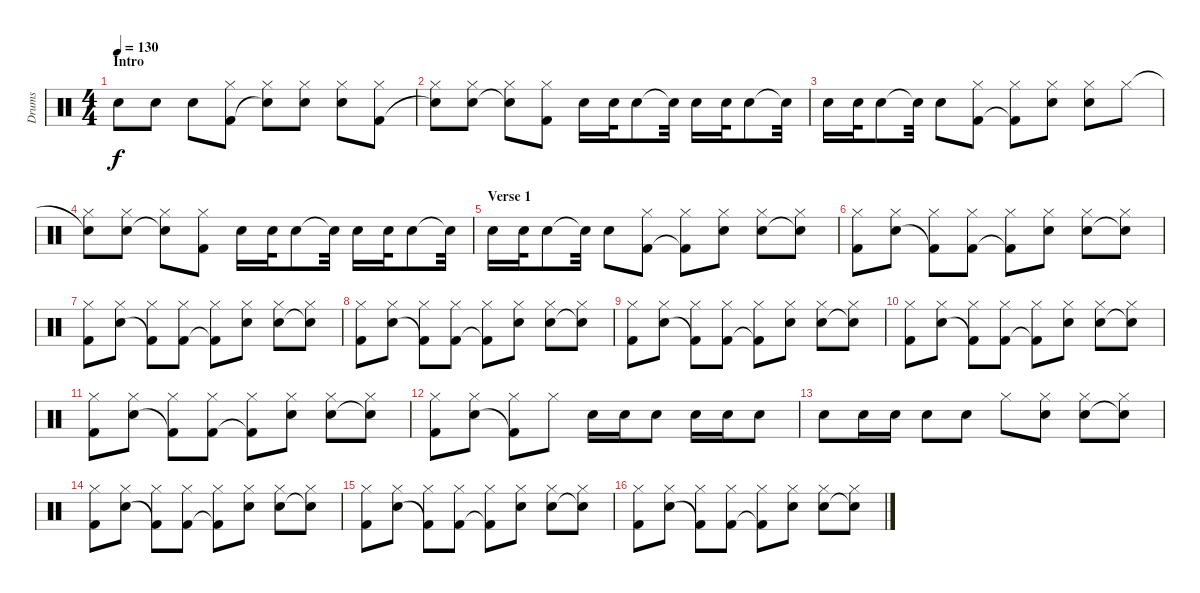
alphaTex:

\track ("Drums" "Drums") {instrument percussion}
\staff {score}
\articulation defaults
\ts (4 4)
\section ("" "Intro")
\tempo 130
\clef neutral
\ks c "Snare (hit) 2".8{dy f} "Snare (hit) 2".8 "Snare (hit) 2".8
("Kick (hit) 2" "Hi-Hat (closed)").8 ("Snare (hit)"{t} "Hi-Hat (closed)").8 ("Snare (hit) 2" "Hi-Hat (closed)").8 ("Snare (hit) 2" "Hi-Hat (closed)").8 ("Kick (hit) 2" "Hi-Hat (closed)").8 |
("Snare (hit)"{t} "Hi-Hat (closed)").8 ("Snare (hit) 2" "Hi-Hat (closed)").8 ("Snare (hit)"{t} "Hi-Hat (closed)").8 ("Kick (hit) 2" "Hi-Hat (closed)").8 "Snare (hit) 2".16 "Snare (hit) 2".32 "Snare (hit) 2".8 "Snare (hit)"{t}.32 "Snare (hit) 2".16 "Snare (hit) 2".32 "Snare (hit) 2".8 "Snare (hit)"{t}.32 |
"Snare (hit) 2".16 "Snare (hit) 2".32 "Snare (hit) 2".8 "Snare (hit)"{t}.32 "Snare (hit) 2".8 ("Kick (hit) 2" "Hi-Hat (closed)").8 ("Kick (hit) 2"{t} "Hi-Hat (closed)").8 ("Snare (hit) 2" "Hi-Hat (closed)").8 ("Snare (hit) 2" "Hi-Hat (closed)").8 "Hi-Hat (closed)".8 |
("Snare (hit)"{t} "Hi-Hat (closed)").8 ("Snare (hit) 2" "Hi-Hat (closed)").8 ("Snare (hit)"{t} "Hi-Hat (closed)").8 ("Kick (hit) 2" "Hi-Hat (closed)").8 "Snare (hit) 2".16 "Snare (hit) 2".32 "Snare (hit) 2".8 "Snare (hit)"{t}.32 "Snare (hit) 2".16 "Snare (hit) 2".32 "Snare (hit) 2".8 "Snare (hit)"{t}.32 |
\section ("" "Verse 1")
"Snare (hit) 2".16 "Snare (hit) 2".32 "Snare (hit) 2".8 "Snare (hit)"{t}.32 "Snare (hit) 2".8 ("Kick (hit) 2" "Hi-Hat (closed)").8 ("Kick (hit) 2"{t} "Hi-Hat (closed)").8 ("Snare (hit) 2" "Hi-Hat (closed)").8 ("Snare (hit) 2" "Hi-Hat (closed)").8 ("Snare (hit)"{t} "Hi-Hat (closed)").8 |
("Kick (hit) 2" "Hi-Hat (closed)").8 ("Snare (hit) 2" "Hi-Hat (closed)").8 ("Kick (hit) 2"{t} "Hi-Hat (closed)").8 ("Kick (hit) 2" "Hi-Hat (closed)").8 ("Kick (hit) 2"{t} "Hi-Hat (closed)").8 ("Snare (hit) 2" "Hi-Hat (closed)").8 ("Snare (hit) 2" "Hi-Hat (closed)").8 ("Snare (hit) 2"{t} "Hi-Hat (closed)").8 |
("Kick (hit) 2" "Hi-Hat (closed)").8 ("Snare (hit) 2" "Hi-Hat (closed)").8 ("Kick (hit) 2"{t} "Hi-Hat (closed)").8 ("Kick (hit) 2" "Hi-Hat (closed)").8 ("Kick (hit) 2"{t} "Hi-Hat (closed)").8 ("Snare (hit) 2" "Hi-Hat (closed)").8 ("Snare (hit) 2" "Hi-Hat (closed)").8 ("Snare (hit) 2"{t} "Hi-Hat (closed)").8 |
("Kick (hit) 2" "Hi-Hat (closed)").8 ("Snare (hit) 2" "Hi-Hat (closed)").8 ("Kick (hit) 2"{t} "Hi-Hat (closed)").8 ("Kick (hit) 2" "Hi-Hat (closed)").8 ("Kick (hit) 2"{t} "Hi-Hat (closed)").8 ("Snare (hit) 2" "Hi-Hat (closed)").8 ("Snare (hit) 2" "Hi-Hat (closed)").8 ("Snare (hit) 2"{t} "Hi-Hat (closed)").8 |
("Kick (hit) 2" "Hi-Hat (closed)").8 ("Snare (hit) 2" "Hi-Hat (closed)").8 ("Kick (hit) 2"{t} "Hi-Hat (closed)").8 ("Kick (hit) 2" "Hi-Hat (closed)").8 ("Kick (hit) 2"{t} "Hi-Hat (closed)").8 ("Snare (hit) 2" "Hi-Hat (closed)").8 ("Snare (hit) 2" "Hi-Hat (closed)").8 ("Snare (hit) 2"{t} "Hi-Hat (closed)").8 |
("Kick (hit) 2" "Hi-Hat (closed)").8 ("Snare (hit) 2" "Hi-Hat (closed)").8 ("Kick (hit) 2"{t} "Hi-Hat (closed)").8 ("Kick (hit) 2" "Hi-Hat (closed)").8 ("Kick (hit) 2"{t} "Hi-Hat (closed)").8 ("Snare (hit) 2" "Hi-Hat (closed)").8 ("Snare (hit) 2" "Hi-Hat (closed)").8 ("Snare (hit) 2"{t} "Hi-Hat (closed)").8 |
("Kick (hit) 2" "Hi-Hat (closed)").8 ("Snare (hit) 2" "Hi-Hat (closed)").8 ("Kick (hit) 2"{t} "Hi-Hat (closed)").8 ("Kick (hit) 2" "Hi-Hat (closed)").8 ("Kick (hit) 2"{t} "Hi-Hat (closed)").8 ("Snare (hit) 2" "Hi-Hat (closed)").8 ("Snare (hit) 2" "Hi-Hat (closed)").8 ("Snare (hit) 2"{t} "Hi-Hat (closed)").8 |
("Kick (hit) 2" "Hi-Hat (closed)").8 ("Snare (hit) 2" "Hi-Hat (closed)").8 ("Kick (hit) 2"{t} "Hi-Hat (closed)").8 "Hi-Hat (closed)".8 "Snare (hit) 2".16 "Snare (hit) 2".16 "Snare (hit) 2".8 "Snare (hit) 2".16 "Snare (hit) 2".16 "Snare (hit) 2".8 |
"Snare (hit) 2".8 "Snare (hit) 2".16 "Snare (hit) 2".16 "Snare (hit) 2".8 "Snare (hit) 2".8 "Hi-Hat (closed)".8 ("Snare (hit) 2" "Hi-Hat (closed)").8 ("Snare (hit) 2" "Hi-Hat (closed)").8 ("Snare (hit) 2"{t} "Hi-Hat (closed)").8 |
("Kick (hit) 2" "Hi-Hat (closed)").8 ("Snare (hit) 2" "Hi-Hat (closed)").8 ("Kick (hit) 2"{t} "Hi-Hat (closed)").8 ("Kick (hit) 2" "Hi-Hat (closed)").8 ("Kick (hit) 2"{t} "Hi-Hat (closed)").8 ("Snare (hit) 2" "Hi-Hat (closed)").8 ("Snare (hit) 2" "Hi-Hat (closed)").8 ("Snare (hit) 2"{t} "Hi-Hat (closed)").8 |
("Kick (hit) 2" "Hi-Hat (closed)").8 ("Snare (hit) 2" "Hi-Hat (closed)").8 ("Kick (hit) 2"{t} "Hi-Hat (closed)").8 ("Kick (hit) 2" "Hi-Hat (closed)").8 ("Kick (hit) 2"{t} "Hi-Hat (closed)").8 ("Snare (hit) 2" "Hi-Hat (closed)").8 ("Snare (hit) 2" "Hi-Hat (closed)").8 ("Snare (hit) 2"{t} "Hi-Hat (closed)").8 |
("Kick (hit) 2" "Hi-Hat (closed)").8 ("Snare (hit) 2" "Hi-Hat (closed)").8 ("Kick (hit) 2"{t} "Hi-Hat (closed)").8 ("Kick (hit) 2" "Hi-Hat (closed)").8 ("Kick (hit) 2"{t} "Hi-Hat (closed)").8 ("Snare (hit) 2" "Hi-Hat (closed)").8 ("Snare (hit) 2" "Hi-Hat (closed)").8 ("Snare (hit) 2"{t} "Hi-Hat (closed)").8
